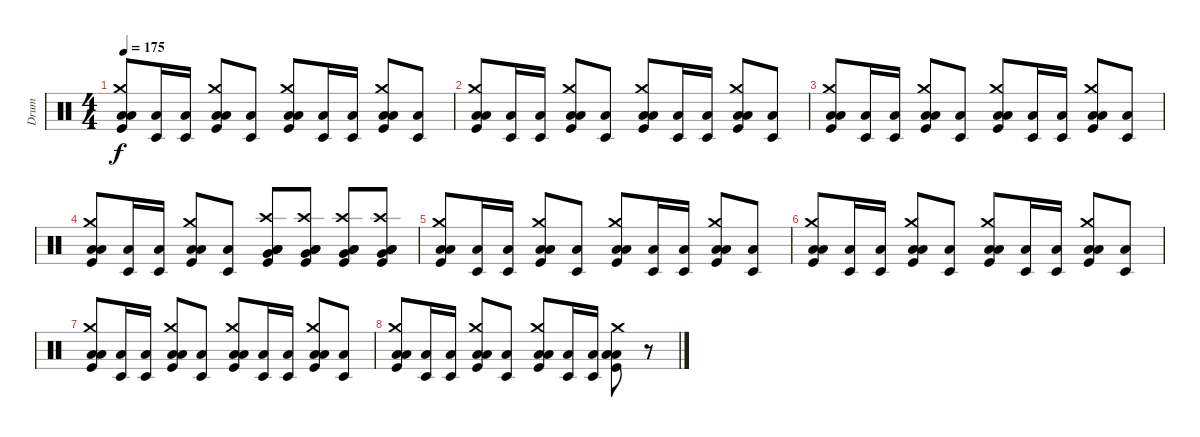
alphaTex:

\track ("Drum" "Drum") {instrument percussion}
\staff {score}
\articulation defaults
\ts (4 4)
\tempo 175
\clef neutral
\ks c
("Kick (hit)" "Low Tom (hit)" "Low Floor Tom (hit)" "Crash medium (hit)").8{dy f} ("Timbale low (hit)" "Low Tom (hit)").16 ("Timbale low (hit)" "Low Tom (hit)").16 ("Kick (hit)" "Low Tom (hit)" "Low Floor Tom (hit)" "Crash medium (hit)").8 ("Timbale low (hit)" "Low Tom (hit)").8 ("Kick (hit)" "Low Tom (hit)" "Low Floor Tom (hit)" "Crash medium (hit)").8 ("Timbale low (hit)" "Low Tom (hit)").16 ("Timbale low (hit)" "Low Tom (hit)").16 ("Kick (hit)" "Low Tom (hit)" "Low Floor Tom (hit)" "Crash medium (hit)").8 ("Timbale low (hit)" "Low Tom (hit)").8 |
("Kick (hit)" "Low Tom (hit)" "Low Floor Tom (hit)" "Crash medium (hit)").8 ("Timbale low (hit)" "Low Tom (hit)").16 ("Timbale low (hit)" "Low Tom (hit)").16 ("Kick (hit)" "Low Tom (hit)" "Low Floor Tom (hit)" "Crash medium (hit)").8 ("Timbale low (hit)" "Low Tom (hit)").8 ("Kick (hit)" "Low Tom (hit)" "Low Floor Tom (hit)" "Crash medium (hit)").8 ("Timbale low (hit)" "Low Tom (hit)").16 ("Timbale low (hit)" "Low Tom (hit)").16 ("Kick (hit)" "Low Tom (hit)" "Low Floor Tom (hit)" "Crash medium (hit)").8 ("Timbale low (hit)" "Low Tom (hit)").8 |
("Kick (hit)" "Low Tom (hit)" "Low Floor Tom (hit)" "Crash medium (hit)").8 ("Timbale low (hit)" "Low Tom (hit)").16 ("Timbale low (hit)" "Low Tom (hit)").16 ("Kick (hit)" "Low Tom (hit)" "Low Floor Tom (hit)" "Crash medium (hit)").8 ("Timbale low (hit)" "Low Tom (hit)").8 ("Kick (hit)" "Low Tom (hit)" "Low Floor Tom (hit)" "Crash medium (hit)").8 ("Timbale low (hit)" "Low Tom (hit)").16 ("Timbale low (hit)" "Low Tom (hit)").16 ("Kick (hit)" "Low Tom (hit)" "Low Floor Tom (hit)" "Crash medium (hit)").8 ("Timbale low (hit)" "Low Tom (hit)").8 |
("Kick (hit)" "Low Tom (hit)" "Low Floor Tom (hit)" "Crash medium (hit)").8 ("Timbale low (hit)" "Low Tom (hit)").16 ("Timbale low (hit)" "Low Tom (hit)").16 ("Kick (hit)" "Low Tom (hit)" "Low Floor Tom (hit)" "Crash medium (hit)").8 ("Timbale low (hit)" "Low Tom (hit)").8 ("Kick (hit)" "Low Tom (hit)" "Low Floor Tom (hit)" "Crash high (hit)" "Very Low Tom (hit)").8 ("Kick (hit)" "Low Tom (hit)" "Low Floor Tom (hit)" "Crash high (hit)" "Very Low Tom (hit)").8 ("Kick (hit)" "Low Tom (hit)" "Low Floor Tom (hit)" "Crash high (hit)" "Very Low Tom (hit)").8 ("Kick (hit)" "Low Tom (hit)" "Low Floor Tom (hit)" "Crash high (hit)" "Very Low Tom (hit)").8 |
("Kick (hit)" "Low Tom (hit)" "Low Floor Tom (hit)" "Crash medium (hit)").8 ("Timbale low (hit)" "Low Tom (hit)").16 ("Timbale low (hit)" "Low Tom (hit)").16 ("Kick (hit)" "Low Tom (hit)" "Low Floor Tom (hit)" "Crash medium (hit)").8 ("Timbale low (hit)" "Low Tom (hit)").8 ("Kick (hit)" "Low Tom (hit)" "Low Floor Tom (hit)" "Crash medium (hit)").8 ("Timbale low (hit)" "Low Tom (hit)").16 ("Timbale low (hit)" "Low Tom (hit)").16 ("Kick (hit)" "Low Tom (hit)" "Low Floor Tom (hit)" "Crash medium (hit)").8 ("Timbale low (hit)" "Low Tom (hit)").8 |
("Kick (hit)" "Low Tom (hit)" "Low Floor Tom (hit)" "Crash medium (hit)").8 ("Timbale low (hit)" "Low Tom (hit)").16 ("Timbale low (hit)" "Low Tom (hit)").16 ("Kick (hit)" "Low Tom (hit)" "Low Floor Tom (hit)" "Crash medium (hit)").8 ("Timbale low (hit)" "Low Tom (hit)").8 ("Kick (hit)" "Low Tom (hit)" "Low Floor Tom (hit)" "Crash medium (hit)").8 ("Timbale low (hit)" "Low Tom (hit)").16 ("Timbale low (hit)" "Low Tom (hit)").16 ("Kick (hit)" "Low Tom (hit)" "Low Floor Tom (hit)" "Crash medium (hit)").8 ("Timbale low (hit)" "Low Tom (hit)").8 |
("Kick (hit)" "Low Tom (hit)" "Low Floor Tom (hit)" "Crash medium (hit)").8 ("Timbale low (hit)" "Low Tom (hit)").16 ("Timbale low (hit)" "Low Tom (hit)").16 ("Kick (hit)" "Low Tom (hit)" "Low Floor Tom (hit)" "Crash medium (hit)").8 ("Timbale low (hit)" "Low Tom (hit)").8 ("Kick (hit)" "Low Tom (hit)" "Low Floor Tom (hit)" "Crash medium (hit)").8 ("Timbale low (hit)" "Low Tom (hit)").16 ("Timbale low (hit)" "Low Tom (hit)").16 ("Kick (hit)" "Low Tom (hit)" "Low Floor Tom (hit)" "Crash medium (hit)").8 ("Timbale low (hit)" "Low Tom (hit)").8 |
("Kick (hit)" "Low Tom (hit)" "Low Floor Tom (hit)" "Crash medium (hit)").8 ("Timbale low (hit)" "Low Tom (hit)").16 ("Timbale low (hit)" "Low Tom (hit)").16 ("Kick (hit)" "Low Tom (hit)" "Low Floor Tom (hit)" "Crash medium (hit)").8 ("Timbale low (hit)" "Low Tom (hit)").8 ("Kick (hit)" "Low Tom (hit)" "Low Floor Tom (hit)" "Crash medium (hit)").8 ("Timbale low (hit)" "Low Tom (hit)").16 ("Timbale low (hit)" "Low Tom (hit)").16 ("Kick (hit)" "Low Tom (hit)" "Low Floor Tom (hit)" "Crash medium (hit)").8 r.8
